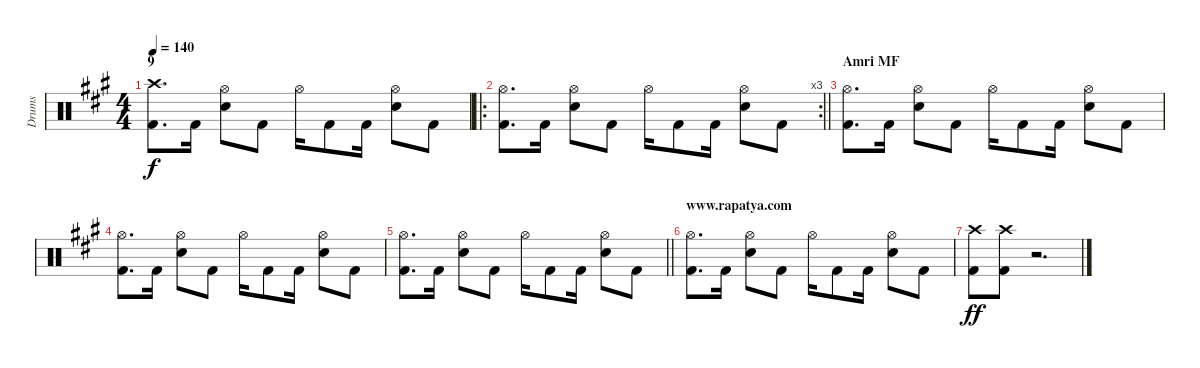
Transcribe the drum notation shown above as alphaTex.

\track ("Drums" "Drums") {instrument percussion}
\staff {score}
\articulation defaults
\ts (4 4)
\section ("" "9")
\tempo 140
\clef neutral
\ks a
("Crash high (hit)" "Kick (hit) 2").8{d dy f} "Kick (hit) 2".16 ("Hi-Hat (open)" "Electric Snare (hit)").8 "Kick (hit) 2".8 "Hi-Hat (open)".16 "Kick (hit) 2".8 "Kick (hit) 2".16 ("Hi-Hat (open)" "Electric Snare (hit)").8 "Kick (hit) 2".8 |
\ro
\rc 3
\barLineRight lightlight
("Hi-Hat (open)" "Kick (hit) 2").8{d} "Kick (hit) 2".16 ("Hi-Hat (open)" "Electric Snare (hit)").8 "Kick (hit) 2".8 "Hi-Hat (open)".16 "Kick (hit) 2".8 "Kick (hit) 2".16 ("Hi-Hat (open)" "Electric Snare (hit)").8 "Kick (hit) 2".8 |
\section ("" "Amri MF")
("Hi-Hat (open)" "Kick (hit) 2").8{d} "Kick (hit) 2".16 ("Hi-Hat (open)" "Electric Snare (hit)").8 "Kick (hit) 2".8 "Hi-Hat (open)".16 "Kick (hit) 2".8 "Kick (hit) 2".16 ("Hi-Hat (open)" "Electric Snare (hit)").8 "Kick (hit) 2".8 |
("Hi-Hat (open)" "Kick (hit) 2").8{d} "Kick (hit) 2".16 ("Hi-Hat (open)" "Electric Snare (hit)").8 "Kick (hit) 2".8 "Hi-Hat (open)".16 "Kick (hit) 2".8 "Kick (hit) 2".16 ("Hi-Hat (open)" "Electric Snare (hit)").8 "Kick (hit) 2".8 |
\barLineRight lightlight
("Hi-Hat (open)" "Kick (hit) 2").8{d} "Kick (hit) 2".16 ("Hi-Hat (open)" "Electric Snare (hit)").8 "Kick (hit) 2".8 "Hi-Hat (open)".16 "Kick (hit) 2".8 "Kick (hit) 2".16 ("Hi-Hat (open)" "Electric Snare (hit)").8 "Kick (hit) 2".8 |
\section ("" "www.rapatya.com")
("Hi-Hat (open)" "Kick (hit) 2").8{d} "Kick (hit) 2".16 ("Hi-Hat (open)" "Electric Snare (hit)").8 "Kick (hit) 2".8 "Hi-Hat (open)".16 "Kick (hit) 2".8 "Kick (hit) 2".16 ("Hi-Hat (open)" "Electric Snare (hit)").8 "Kick (hit) 2".8 |
("Kick (hit) 2" "Crash high (hit)").8{dy ff} ("Kick (hit) 2" "Crash high (hit)").8 r.2{d}
